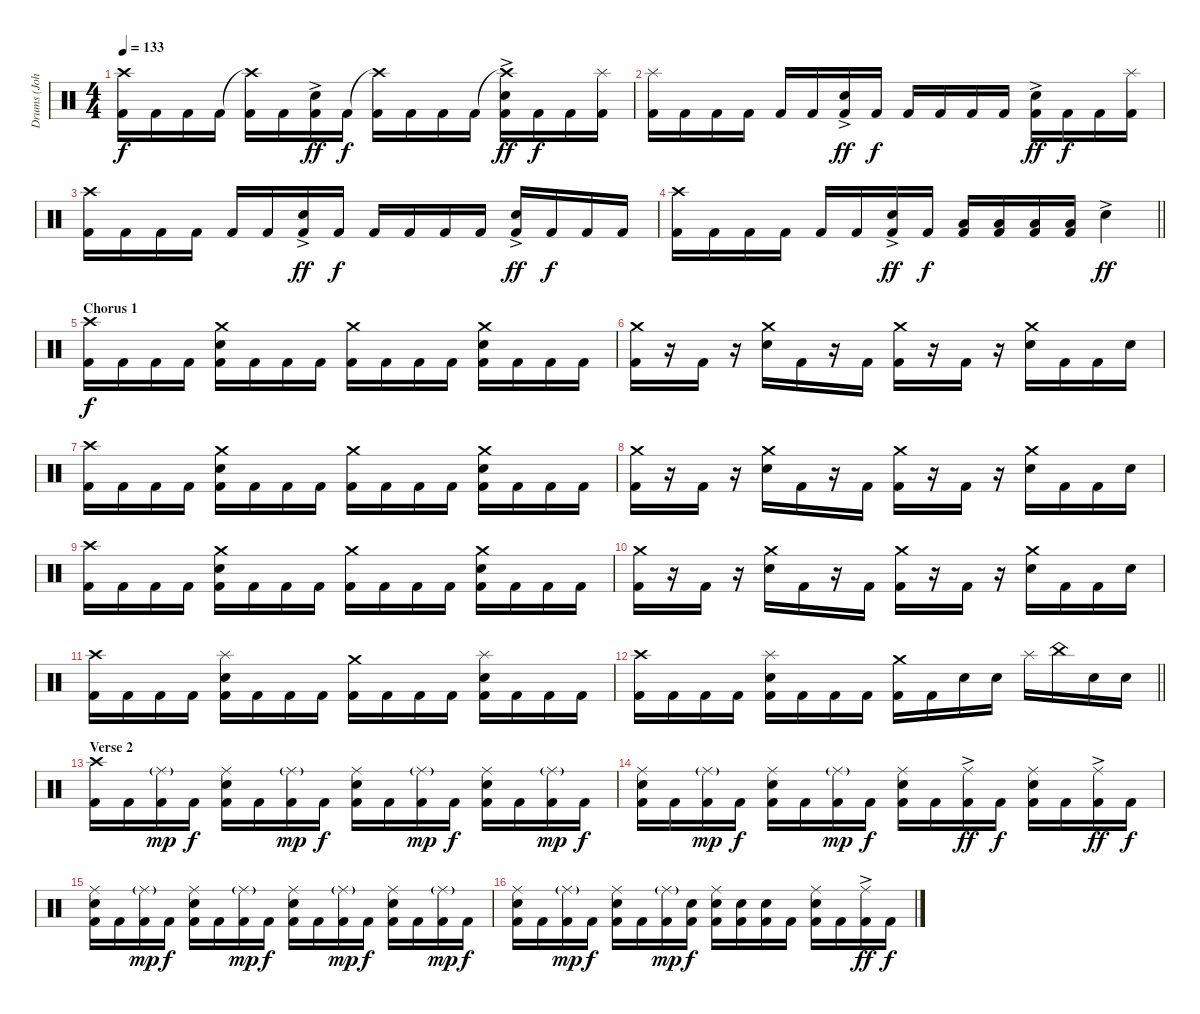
\track ("Drums (John)" "Drums (Joh") {instrument percussion}
\staff {score}
\articulation defaults
\ts (4 4)
\tempo 133
\clef neutral
\ks c
("Crash high (hit)" "Kick (hit) 2").16{dy f} "Kick (hit) 2".16 "Kick (hit) 2".16 "Kick (hit) 2".16 ("Crash high (hit)"{t} "Kick (hit) 2").16 "Kick (hit) 2".16 ("Electric Snare (hit)"{ac} "Kick (hit) 2").16{dy ff} "Kick (hit) 2".16{dy f} ("Crash high (hit)"{t} "Kick (hit) 2").16 "Kick (hit) 2".16 "Kick (hit) 2".16 "Kick (hit) 2".16 ("Crash high (hit)"{t} "Electric Snare (hit)"{ac} "Kick (hit) 2").16{dy ff} "Kick (hit) 2".16{dy f} "Kick (hit) 2".16 ("Splash (hit)" "Kick (hit) 2").16 |
("Splash (hit)" "Kick (hit) 2").16 "Kick (hit) 2".16 "Kick (hit) 2".16 "Kick (hit) 2".16 "Kick (hit) 2".16 "Kick (hit) 2".16 ("Electric Snare (hit)"{ac} "Kick (hit) 2").16{dy ff} "Kick (hit) 2".16{dy f} "Kick (hit) 2".16 "Kick (hit) 2".16 "Kick (hit) 2".16 "Kick (hit) 2".16 ("Electric Snare (hit)"{ac} "Kick (hit) 2").16{dy ff} "Kick (hit) 2".16{dy f} "Kick (hit) 2".16 ("Splash (hit)" "Kick (hit) 2").16 |
("Crash high (hit)" "Kick (hit) 2").16 "Kick (hit) 2".16 "Kick (hit) 2".16 "Kick (hit) 2".16 "Kick (hit) 2".16 "Kick (hit) 2".16 ("Electric Snare (hit)"{ac} "Kick (hit) 2").16{dy ff} "Kick (hit) 2".16{dy f} "Kick (hit) 2".16 "Kick (hit) 2".16 "Kick (hit) 2".16 "Kick (hit) 2".16 ("Electric Snare (hit)"{ac} "Kick (hit) 2").16{dy ff} "Kick (hit) 2".16{dy f} "Kick (hit) 2".16 "Kick (hit) 2".16 |
\barLineRight lightlight
("Crash high (hit)" "Kick (hit) 2").16 "Kick (hit) 2".16 "Kick (hit) 2".16 "Kick (hit) 2".16 "Kick (hit) 2".16 "Kick (hit) 2".16 ("Electric Snare (hit)"{ac} "Kick (hit) 2").16{dy ff} "Kick (hit) 2".16{dy f} ("Low Tom (hit)" "Kick (hit) 2").16 ("Low Tom (hit)" "Kick (hit) 2").16 ("Low Floor Tom (hit)" "Kick (hit) 2").16 ("Low Floor Tom (hit)" "Kick (hit) 2").16 "Electric Snare (hit)"{ac}.4{dy ff} |
\section ("" "Chorus 1")
("Crash high (hit)" "Kick (hit) 2").16{dy f} "Kick (hit) 2".16 "Kick (hit) 2".16 "Kick (hit) 2".16 ("Crash medium (hit)" "Electric Snare (hit)" "Kick (hit) 2").16 "Kick (hit) 2".16 "Kick (hit) 2".16 "Kick (hit) 2".16 ("Crash medium (hit)" "Kick (hit) 2").16 "Kick (hit) 2".16 "Kick (hit) 2".16 "Kick (hit) 2".16 ("Crash medium (hit)" "Electric Snare (hit)" "Kick (hit) 2").16 "Kick (hit) 2".16 "Kick (hit) 2".16 "Kick (hit) 2".16 |
("Crash medium (hit)" "Kick (hit) 2").16 r.16 "Kick (hit) 2".16 r.16 ("Crash medium (hit)" "Electric Snare (hit)").16 "Kick (hit) 2".16 r.16 "Kick (hit) 2".16 ("Crash medium (hit)" "Kick (hit) 2").16 r.16 "Kick (hit) 2".16 r.16 ("Crash medium (hit)" "Electric Snare (hit)").16 "Kick (hit) 2".16 "Kick (hit) 2".16 "Electric Snare (hit)".16 |
("Crash high (hit)" "Kick (hit) 2").16 "Kick (hit) 2".16 "Kick (hit) 2".16 "Kick (hit) 2".16 ("Crash medium (hit)" "Electric Snare (hit)" "Kick (hit) 2").16 "Kick (hit) 2".16 "Kick (hit) 2".16 "Kick (hit) 2".16 ("Crash medium (hit)" "Kick (hit) 2").16 "Kick (hit) 2".16 "Kick (hit) 2".16 "Kick (hit) 2".16 ("Crash medium (hit)" "Electric Snare (hit)" "Kick (hit) 2").16 "Kick (hit) 2".16 "Kick (hit) 2".16 "Kick (hit) 2".16 |
("Crash medium (hit)" "Kick (hit) 2").16 r.16 "Kick (hit) 2".16 r.16 ("Crash medium (hit)" "Electric Snare (hit)").16 "Kick (hit) 2".16 r.16 "Kick (hit) 2".16 ("Crash medium (hit)" "Kick (hit) 2").16 r.16 "Kick (hit) 2".16 r.16 ("Crash medium (hit)" "Electric Snare (hit)").16 "Kick (hit) 2".16 "Kick (hit) 2".16 "Electric Snare (hit)".16 |
("Crash high (hit)" "Kick (hit) 2").16 "Kick (hit) 2".16 "Kick (hit) 2".16 "Kick (hit) 2".16 ("Crash medium (hit)" "Electric Snare (hit)" "Kick (hit) 2").16 "Kick (hit) 2".16 "Kick (hit) 2".16 "Kick (hit) 2".16 ("Crash medium (hit)" "Kick (hit) 2").16 "Kick (hit) 2".16 "Kick (hit) 2".16 "Kick (hit) 2".16 ("Crash medium (hit)" "Electric Snare (hit)" "Kick (hit) 2").16 "Kick (hit) 2".16 "Kick (hit) 2".16 "Kick (hit) 2".16 |
("Crash medium (hit)" "Kick (hit) 2").16 r.16 "Kick (hit) 2".16 r.16 ("Crash medium (hit)" "Electric Snare (hit)").16 "Kick (hit) 2".16 r.16 "Kick (hit) 2".16 ("Crash medium (hit)" "Kick (hit) 2").16 r.16 "Kick (hit) 2".16 r.16 ("Crash medium (hit)" "Electric Snare (hit)").16 "Kick (hit) 2".16 "Kick (hit) 2".16 "Electric Snare (hit)".16 |
("Crash high (hit)" "Kick (hit) 2").16 "Kick (hit) 2".16 "Kick (hit) 2".16 "Kick (hit) 2".16 ("Splash (hit)" "Electric Snare (hit)" "Kick (hit) 2").16 "Kick (hit) 2".16 "Kick (hit) 2".16 "Kick (hit) 2".16 ("Crash medium (hit)" "Kick (hit) 2").16 "Kick (hit) 2".16 "Kick (hit) 2".16 "Kick (hit) 2".16 ("Splash (hit)" "Electric Snare (hit)" "Kick (hit) 2").16 "Kick (hit) 2".16 "Kick (hit) 2".16 "Kick (hit) 2".16 |
\barLineRight lightlight
("Crash high (hit)" "Kick (hit) 2").16 "Kick (hit) 2".16 "Kick (hit) 2".16 "Kick (hit) 2".16 ("Splash (hit)" "Electric Snare (hit)" "Kick (hit) 2").16 "Kick (hit) 2".16 "Kick (hit) 2".16 "Kick (hit) 2".16 ("Crash medium (hit)" "Kick (hit) 2").16 "Kick (hit) 2".16 "Electric Snare (hit)".16 "Electric Snare (hit)".16 "Splash (hit)".16 "China (hit)".16 "Electric Snare (hit)".16 "Electric Snare (hit)".16 |
\section ("" "Verse 2")
("Crash high (hit)" "Kick (hit) 2").16 "Kick (hit) 2".16 ("Ride (middle)"{g} "Kick (hit) 2").16{dy mp} "Kick (hit) 2".16{dy f} ("Ride (middle)" "Electric Snare (hit)" "Kick (hit) 2").16 "Kick (hit) 2".16 ("Ride (middle)"{g} "Kick (hit) 2").16{dy mp} "Kick (hit) 2".16{dy f} ("Ride (middle)" "Electric Snare (hit)" "Kick (hit) 2").16 "Kick (hit) 2".16 ("Ride (middle)"{g} "Kick (hit) 2").16{dy mp} "Kick (hit) 2".16{dy f} ("Ride (middle)" "Electric Snare (hit)" "Kick (hit) 2").16 "Kick (hit) 2".16 ("Ride (middle)"{g} "Kick (hit) 2").16{dy mp} "Kick (hit) 2".16{dy f} |
("Ride (middle)" "Electric Snare (hit)" "Kick (hit) 2").16 "Kick (hit) 2".16 ("Ride (middle)"{g} "Kick (hit) 2").16{dy mp} "Kick (hit) 2".16{dy f} ("Ride (middle)" "Electric Snare (hit)" "Kick (hit) 2").16 "Kick (hit) 2".16 ("Ride (middle)"{g} "Kick (hit) 2").16{dy mp} "Kick (hit) 2".16{dy f} ("Ride (middle)" "Electric Snare (hit)" "Kick (hit) 2").16 "Kick (hit) 2".16 ("Ride (middle)"{ac} "Kick (hit) 2").16{dy ff} "Kick (hit) 2".16{dy f} ("Ride (middle)" "Electric Snare (hit)" "Kick (hit) 2").16 "Kick (hit) 2".16 ("Ride (middle)"{ac} "Kick (hit) 2").16{dy ff} "Kick (hit) 2".16{dy f} |
("Ride (middle)" "Electric Snare (hit)" "Kick (hit) 2").16 "Kick (hit) 2".16 ("Ride (middle)"{g} "Kick (hit) 2").16{dy mp} "Kick (hit) 2".16{dy f} ("Ride (middle)" "Electric Snare (hit)" "Kick (hit) 2").16 "Kick (hit) 2".16 ("Ride (middle)"{g} "Kick (hit) 2").16{dy mp} "Kick (hit) 2".16{dy f} ("Ride (middle)" "Electric Snare (hit)" "Kick (hit) 2").16 "Kick (hit) 2".16 ("Ride (middle)"{g} "Kick (hit) 2").16{dy mp} "Kick (hit) 2".16{dy f} ("Ride (middle)" "Electric Snare (hit)" "Kick (hit) 2").16 "Kick (hit) 2".16 ("Ride (middle)"{g} "Kick (hit) 2").16{dy mp} "Kick (hit) 2".16{dy f} |
("Ride (middle)" "Electric Snare (hit)" "Kick (hit) 2").16 "Kick (hit) 2".16 ("Ride (middle)"{g} "Kick (hit) 2").16{dy mp} "Kick (hit) 2".16{dy f} ("Ride (middle)" "Electric Snare (hit)" "Kick (hit) 2").16 "Kick (hit) 2".16 ("Ride (middle)"{g} "Kick (hit) 2").16{dy mp} ("Electric Snare (hit)" "Kick (hit) 2").16{dy f} ("Ride (middle)" "Electric Snare (hit)" "Kick (hit) 2").16 ("Electric Snare (hit)" "Kick (hit) 2").16 ("Electric Snare (hit)" "Kick (hit) 2").16 "Kick (hit) 2".16 ("Ride (middle)" "Electric Snare (hit)" "Kick (hit) 2").16 "Kick (hit) 2".16 ("Ride (middle)"{ac} "Kick (hit) 2").16{dy ff} "Kick (hit) 2".16{dy f}
